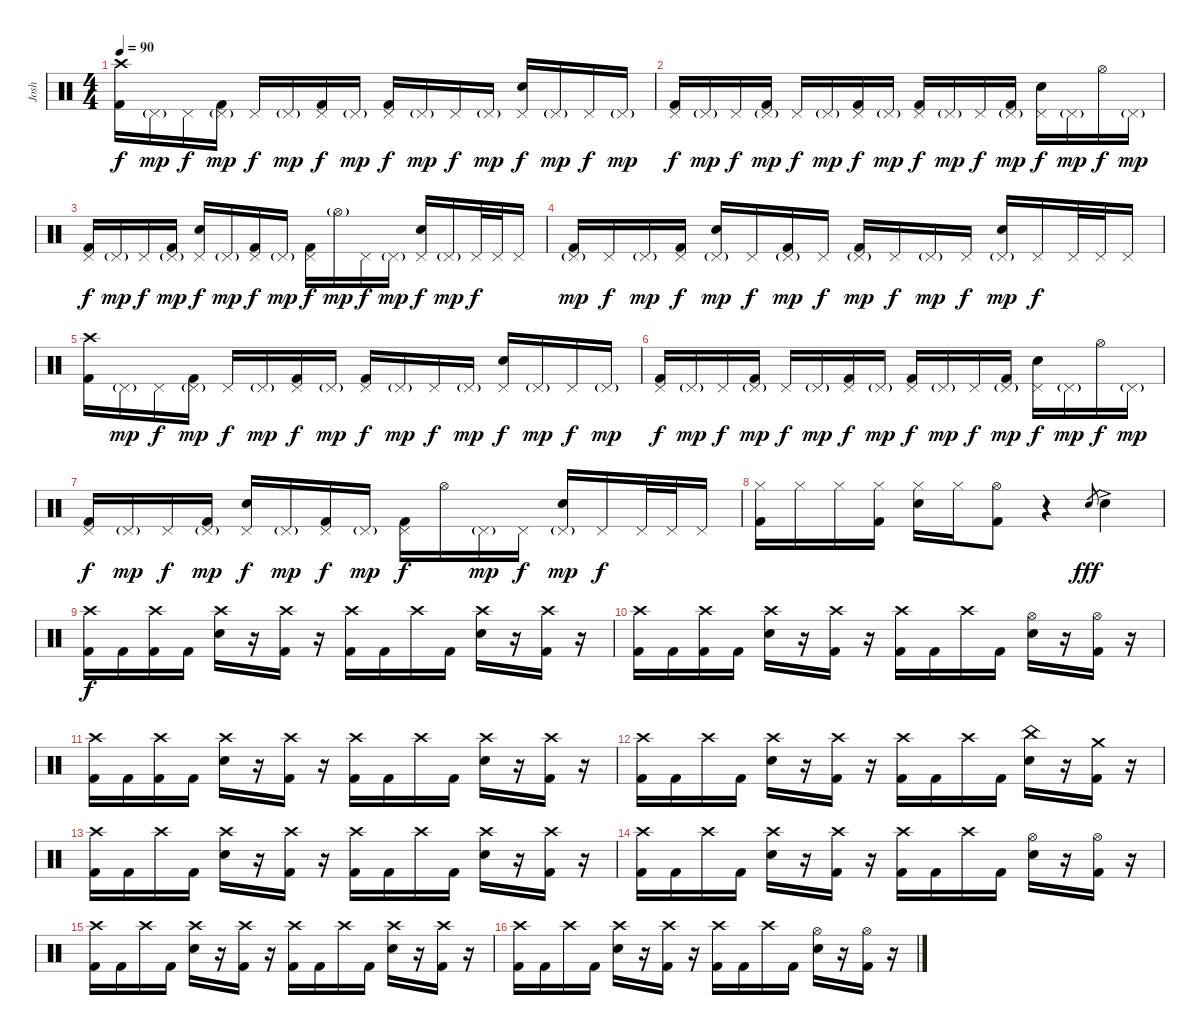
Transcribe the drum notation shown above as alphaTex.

\track ("Josh" "Josh") {instrument percussion}
\staff {score}
\articulation defaults
\ts (4 4)
\tempo 90
\clef neutral
\ks c
("Crash high (hit)" "Kick (hit) 2").16{dy f} "Pedal Hi-Hat (hit)"{g}.16{dy mp} "Pedal Hi-Hat (hit)".16{dy f} ("Pedal Hi-Hat (hit)"{g} "Kick (hit) 2").16{dy mp} "Pedal Hi-Hat (hit)".16{dy f} "Pedal Hi-Hat (hit)"{g}.16{dy mp} ("Pedal Hi-Hat (hit)" "Kick (hit) 2").16{dy f} "Pedal Hi-Hat (hit)"{g}.16{dy mp} ("Pedal Hi-Hat (hit)" "Kick (hit) 2").16{dy f} "Pedal Hi-Hat (hit)"{g}.16{dy mp} "Pedal Hi-Hat (hit)".16{dy f} "Pedal Hi-Hat (hit)"{g}.16{dy mp} ("Pedal Hi-Hat (hit)" "Electric Snare (hit)").16{dy f} "Pedal Hi-Hat (hit)"{g}.16{dy mp} "Pedal Hi-Hat (hit)".16{dy f} "Pedal Hi-Hat (hit)"{g}.16{dy mp} |
("Pedal Hi-Hat (hit)" "Kick (hit) 2").16{dy f} "Pedal Hi-Hat (hit)"{g}.16{dy mp} "Pedal Hi-Hat (hit)".16{dy f} ("Pedal Hi-Hat (hit)"{g} "Kick (hit) 2").16{dy mp} "Pedal Hi-Hat (hit)".16{dy f} "Pedal Hi-Hat (hit)"{g}.16{dy mp} ("Pedal Hi-Hat (hit)" "Kick (hit) 2").16{dy f} "Pedal Hi-Hat (hit)"{g}.16{dy mp} ("Pedal Hi-Hat (hit)" "Kick (hit) 2").16{dy f} "Pedal Hi-Hat (hit)"{g}.16{dy mp} "Pedal Hi-Hat (hit)".16{dy f} ("Pedal Hi-Hat (hit)"{g} "Kick (hit) 2").16{dy mp} ("Pedal Hi-Hat (hit)" "Electric Snare (hit)").16{dy f} "Pedal Hi-Hat (hit)"{g}.16{dy mp} "Hi-Hat (open)".16{dy f} "Pedal Hi-Hat (hit)"{g}.16{dy mp} |
("Pedal Hi-Hat (hit)" "Kick (hit) 2").16{dy f} "Pedal Hi-Hat (hit)"{g}.16{dy mp} "Pedal Hi-Hat (hit)".16{dy f} ("Pedal Hi-Hat (hit)"{g} "Kick (hit) 2").16{dy mp} ("Pedal Hi-Hat (hit)" "Electric Snare (hit)").16{dy f} "Pedal Hi-Hat (hit)"{g}.16{dy mp} ("Pedal Hi-Hat (hit)" "Kick (hit) 2").16{dy f} "Pedal Hi-Hat (hit)"{g}.16{dy mp} ("Pedal Hi-Hat (hit)" "Kick (hit) 2").16{dy f} "Hi-Hat (open)"{g}.16{dy mp} "Pedal Hi-Hat (hit)".16{dy f} "Pedal Hi-Hat (hit)"{g}.16{dy mp} ("Pedal Hi-Hat (hit)" "Electric Snare (hit)").16{dy f} "Pedal Hi-Hat (hit)"{g}.16{dy mp} "Pedal Hi-Hat (hit)".32{dy f} "Pedal Hi-Hat (hit)".32 "Pedal Hi-Hat (hit)".16 |
("Pedal Hi-Hat (hit)"{g} "Kick (hit) 2").16{dy mp} "Pedal Hi-Hat (hit)".16{dy f} "Pedal Hi-Hat (hit)"{g}.16{dy mp} ("Pedal Hi-Hat (hit)" "Kick (hit) 2").16{dy f} ("Pedal Hi-Hat (hit)"{g} "Electric Snare (hit)").16{dy mp} "Pedal Hi-Hat (hit)".16{dy f} ("Pedal Hi-Hat (hit)"{g} "Kick (hit) 2").16{dy mp} "Pedal Hi-Hat (hit)".16{dy f} ("Pedal Hi-Hat (hit)"{g} "Kick (hit) 2").16{dy mp} "Pedal Hi-Hat (hit)".16{dy f} "Pedal Hi-Hat (hit)"{g}.16{dy mp} "Pedal Hi-Hat (hit)".16{dy f} ("Pedal Hi-Hat (hit)"{g} "Electric Snare (hit)").16{dy mp} "Pedal Hi-Hat (hit)".16{dy f} "Pedal Hi-Hat (hit)".32 "Pedal Hi-Hat (hit)".32 "Pedal Hi-Hat (hit)".16 |
("Crash high (hit)" "Kick (hit) 2").16 "Pedal Hi-Hat (hit)"{g}.16{dy mp} "Pedal Hi-Hat (hit)".16{dy f} ("Pedal Hi-Hat (hit)"{g} "Kick (hit) 2").16{dy mp} "Pedal Hi-Hat (hit)".16{dy f} "Pedal Hi-Hat (hit)"{g}.16{dy mp} ("Pedal Hi-Hat (hit)" "Kick (hit) 2").16{dy f} "Pedal Hi-Hat (hit)"{g}.16{dy mp} ("Pedal Hi-Hat (hit)" "Kick (hit) 2").16{dy f} "Pedal Hi-Hat (hit)"{g}.16{dy mp} "Pedal Hi-Hat (hit)".16{dy f} "Pedal Hi-Hat (hit)"{g}.16{dy mp} ("Pedal Hi-Hat (hit)" "Electric Snare (hit)").16{dy f} "Pedal Hi-Hat (hit)"{g}.16{dy mp} "Pedal Hi-Hat (hit)".16{dy f} "Pedal Hi-Hat (hit)"{g}.16{dy mp} |
("Pedal Hi-Hat (hit)" "Kick (hit) 2").16{dy f} "Pedal Hi-Hat (hit)"{g}.16{dy mp} "Pedal Hi-Hat (hit)".16{dy f} ("Pedal Hi-Hat (hit)"{g} "Kick (hit) 2").16{dy mp} "Pedal Hi-Hat (hit)".16{dy f} "Pedal Hi-Hat (hit)"{g}.16{dy mp} ("Pedal Hi-Hat (hit)" "Kick (hit) 2").16{dy f} "Pedal Hi-Hat (hit)"{g}.16{dy mp} ("Pedal Hi-Hat (hit)" "Kick (hit) 2").16{dy f} "Pedal Hi-Hat (hit)"{g}.16{dy mp} "Pedal Hi-Hat (hit)".16{dy f} ("Pedal Hi-Hat (hit)"{g} "Kick (hit) 2").16{dy mp} ("Pedal Hi-Hat (hit)" "Electric Snare (hit)").16{dy f} "Pedal Hi-Hat (hit)"{g}.16{dy mp} "Hi-Hat (open)".16{dy f} "Pedal Hi-Hat (hit)"{g}.16{dy mp} |
("Pedal Hi-Hat (hit)" "Kick (hit) 2").16{dy f} "Pedal Hi-Hat (hit)"{g}.16{dy mp} "Pedal Hi-Hat (hit)".16{dy f} ("Pedal Hi-Hat (hit)"{g} "Kick (hit) 2").16{dy mp} ("Pedal Hi-Hat (hit)" "Electric Snare (hit)").16{dy f} "Pedal Hi-Hat (hit)"{g}.16{dy mp} ("Pedal Hi-Hat (hit)" "Kick (hit) 2").16{dy f} "Pedal Hi-Hat (hit)"{g}.16{dy mp} ("Pedal Hi-Hat (hit)" "Kick (hit) 2").16{dy f} "Hi-Hat (open)".16 "Pedal Hi-Hat (hit)"{g}.16{dy mp} "Pedal Hi-Hat (hit)".16{dy f} ("Pedal Hi-Hat (hit)"{g} "Electric Snare (hit)").16{dy mp} "Pedal Hi-Hat (hit)".16{dy f} "Pedal Hi-Hat (hit)".32 "Pedal Hi-Hat (hit)".32 "Pedal Hi-Hat (hit)".16 |
("Hi-Hat (closed)" "Kick (hit) 2").16 "Hi-Hat (closed)".16 "Hi-Hat (closed)".16 ("Hi-Hat (closed)" "Kick (hit) 2").16 ("Hi-Hat (closed)" "Electric Snare (hit)").16 "Hi-Hat (closed)".16 ("Hi-Hat (open)" "Kick (hit) 2").8 r.4 "Electric Snare (hit)".8{gr dy fff} "Electric Snare (hit)"{ac}.4 |
("Crash high (hit)" "Kick (hit) 2").16{dy f} "Kick (hit) 2".16 ("Crash high (hit)" "Kick (hit) 2").16 "Kick (hit) 2".16 ("Crash high (hit)" "Electric Snare (hit)").16 r.16 ("Crash high (hit)" "Kick (hit) 2").16 r.16 ("Crash high (hit)" "Kick (hit) 2").16 "Kick (hit) 2".16 "Crash high (hit)".16 "Kick (hit) 2".16 ("Crash high (hit)" "Electric Snare (hit)").16 r.16 ("Crash high (hit)" "Kick (hit) 2").16 r.16 |
("Crash high (hit)" "Kick (hit) 2").16 "Kick (hit) 2".16 ("Crash high (hit)" "Kick (hit) 2").16 "Kick (hit) 2".16 ("Crash high (hit)" "Electric Snare (hit)").16 r.16 ("Crash high (hit)" "Kick (hit) 2").16 r.16 ("Crash high (hit)" "Kick (hit) 2").16 "Kick (hit) 2".16 "Crash high (hit)".16 "Kick (hit) 2".16 ("Hi-Hat (open)" "Electric Snare (hit)").16 r.16 ("Hi-Hat (open)" "Kick (hit) 2").16 r.16 |
("Crash high (hit)" "Kick (hit) 2").16 "Kick (hit) 2".16 ("Crash high (hit)" "Kick (hit) 2").16 "Kick (hit) 2".16 ("Crash high (hit)" "Electric Snare (hit)").16 r.16 ("Crash high (hit)" "Kick (hit) 2").16 r.16 ("Crash high (hit)" "Kick (hit) 2").16 "Kick (hit) 2".16 "Crash high (hit)".16 "Kick (hit) 2".16 ("Crash high (hit)" "Electric Snare (hit)").16 r.16 ("Crash high (hit)" "Kick (hit) 2").16 r.16 |
("Crash high (hit)" "Kick (hit) 2").16 "Kick (hit) 2".16 "Crash high (hit)".16 "Kick (hit) 2".16 ("Crash high (hit)" "Electric Snare (hit)").16 r.16 ("Crash high (hit)" "Kick (hit) 2").16 r.16 ("Crash high (hit)" "Kick (hit) 2").16 "Kick (hit) 2".16 "Crash high (hit)".16 "Kick (hit) 2".16 ("China (hit)" "Electric Snare (hit)").16 r.16 ("Crash medium (hit)" "Kick (hit) 2").16 r.16 |
("Crash high (hit)" "Kick (hit) 2").16 "Kick (hit) 2".16 "Crash high (hit)".16 "Kick (hit) 2".16 ("Crash high (hit)" "Electric Snare (hit)").16 r.16 ("Crash high (hit)" "Kick (hit) 2").16 r.16 ("Crash high (hit)" "Kick (hit) 2").16 "Kick (hit) 2".16 "Crash high (hit)".16 "Kick (hit) 2".16 ("Crash high (hit)" "Electric Snare (hit)").16 r.16 ("Crash high (hit)" "Kick (hit) 2").16 r.16 |
("Crash high (hit)" "Kick (hit) 2").16 "Kick (hit) 2".16 "Crash high (hit)".16 "Kick (hit) 2".16 ("Crash high (hit)" "Electric Snare (hit)").16 r.16 ("Crash high (hit)" "Kick (hit) 2").16 r.16 ("Crash high (hit)" "Kick (hit) 2").16 "Kick (hit) 2".16 "Crash high (hit)".16 "Kick (hit) 2".16 ("Hi-Hat (open)" "Electric Snare (hit)").16 r.16 ("Hi-Hat (open)" "Kick (hit) 2").16 r.16 |
("Crash high (hit)" "Kick (hit) 2").16 "Kick (hit) 2".16 "Crash high (hit)".16 "Kick (hit) 2".16 ("Crash high (hit)" "Electric Snare (hit)").16 r.16 ("Crash high (hit)" "Kick (hit) 2").16 r.16 ("Crash high (hit)" "Kick (hit) 2").16 "Kick (hit) 2".16 "Crash high (hit)".16 "Kick (hit) 2".16 ("Crash high (hit)" "Electric Snare (hit)").16 r.16 ("Crash high (hit)" "Kick (hit) 2").16 r.16 |
("Crash high (hit)" "Kick (hit) 2").16 "Kick (hit) 2".16 "Crash high (hit)".16 "Kick (hit) 2".16 ("Crash high (hit)" "Electric Snare (hit)").16 r.16 ("Crash high (hit)" "Kick (hit) 2").16 r.16 ("Crash high (hit)" "Kick (hit) 2").16 "Kick (hit) 2".16 "Crash high (hit)".16 "Kick (hit) 2".16 ("Hi-Hat (open)" "Electric Snare (hit)").16 r.16 ("Hi-Hat (open)" "Kick (hit) 2").16 r.16
